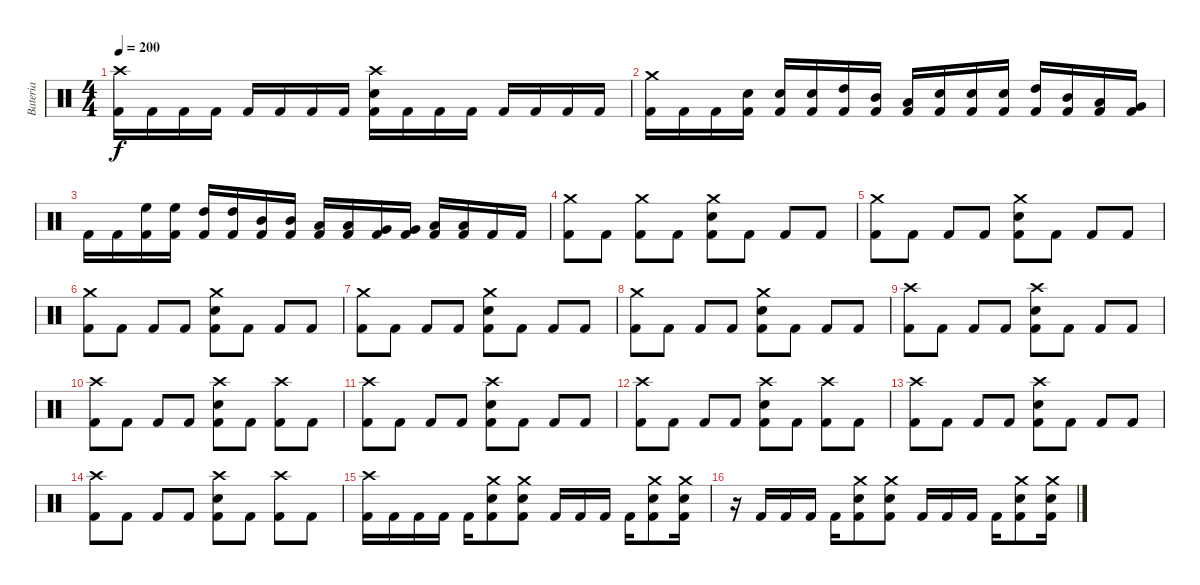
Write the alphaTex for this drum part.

\track ("Bateria" "Bateria") {instrument percussion}
\staff {score}
\articulation defaults
\ts (4 4)
\tempo 200
\clef neutral
\ks c
("Crash high (hit)" "Kick (hit) 2").16{dy f} "Kick (hit) 2".16 "Kick (hit) 2".16 "Kick (hit) 2".16 "Kick (hit) 2".16 "Kick (hit) 2".16 "Kick (hit) 2".16 "Kick (hit) 2".16 ("Crash high (hit)" "Electric Snare (hit)" "Kick (hit) 2").16 "Kick (hit) 2".16 "Kick (hit) 2".16 "Kick (hit) 2".16 "Kick (hit) 2".16 "Kick (hit) 2".16 "Kick (hit) 2".16 "Kick (hit) 2".16 |
("Crash medium (hit)" "Kick (hit) 2").16 "Kick (hit) 2".16 "Kick (hit) 2".16 ("Electric Snare (hit)" "Kick (hit) 2").16 ("Electric Snare (hit)" "Kick (hit) 2").16 ("Electric Snare (hit)" "Kick (hit) 2").16 ("High Tom (hit)" "Kick (hit) 2").16 ("Mid Tom (hit)" "Kick (hit) 2").16 ("Low Tom (hit)" "Kick (hit) 2").16 ("Electric Snare (hit)" "Kick (hit) 2").16 ("Electric Snare (hit)" "Kick (hit) 2").16 ("Electric Snare (hit)" "Kick (hit) 2").16 ("High Tom (hit)" "Kick (hit) 2").16 ("Mid Tom (hit)" "Kick (hit) 2").16 ("Low Tom (hit)" "Kick (hit) 2").16 ("Very Low Tom (hit)" "Kick (hit) 2").16 |
"Kick (hit) 2".16 "Kick (hit) 2".16 ("High Floor Tom (hit)" "Kick (hit) 2").16 ("High Floor Tom (hit)" "Kick (hit) 2").16 ("High Tom (hit)" "Kick (hit) 2").16 ("High Tom (hit)" "Kick (hit) 2").16 ("Mid Tom (hit)" "Kick (hit) 2").16 ("Mid Tom (hit)" "Kick (hit) 2").16 ("Low Tom (hit)" "Kick (hit) 2").16 ("Low Tom (hit)" "Kick (hit) 2").16 ("Very Low Tom (hit)" "Kick (hit) 2").16 ("Very Low Tom (hit)" "Kick (hit) 2").16 ("Low Floor Tom (hit)" "Kick (hit) 2").16 ("Low Floor Tom (hit)" "Kick (hit) 2").16 "Kick (hit) 2".16 "Kick (hit) 2".16 |
("Crash medium (hit)" "Kick (hit) 2").8 "Kick (hit) 2".8 ("Crash medium (hit)" "Kick (hit) 2").8 "Kick (hit) 2".8 ("Crash medium (hit)" "Electric Snare (hit)" "Kick (hit) 2").8 "Kick (hit) 2".8 "Kick (hit) 2".8 "Kick (hit) 2".8 |
("Crash medium (hit)" "Kick (hit) 2").8 "Kick (hit) 2".8 "Kick (hit) 2".8 "Kick (hit) 2".8 ("Crash medium (hit)" "Electric Snare (hit)" "Kick (hit) 2").8 "Kick (hit) 2".8 "Kick (hit) 2".8 "Kick (hit) 2".8 |
("Crash medium (hit)" "Kick (hit) 2").8 "Kick (hit) 2".8 "Kick (hit) 2".8 "Kick (hit) 2".8 ("Crash medium (hit)" "Electric Snare (hit)" "Kick (hit) 2").8 "Kick (hit) 2".8 "Kick (hit) 2".8 "Kick (hit) 2".8 |
("Crash medium (hit)" "Kick (hit) 2").8 "Kick (hit) 2".8 "Kick (hit) 2".8 "Kick (hit) 2".8 ("Crash medium (hit)" "Electric Snare (hit)" "Kick (hit) 2").8 "Kick (hit) 2".8 "Kick (hit) 2".8 "Kick (hit) 2".8 |
("Crash medium (hit)" "Kick (hit) 2").8 "Kick (hit) 2".8 "Kick (hit) 2".8 "Kick (hit) 2".8 ("Crash medium (hit)" "Electric Snare (hit)" "Kick (hit) 2").8 "Kick (hit) 2".8 "Kick (hit) 2".8 "Kick (hit) 2".8 |
("Crash high (hit)" "Kick (hit) 2").8 "Kick (hit) 2".8 "Kick (hit) 2".8 "Kick (hit) 2".8 ("Crash high (hit)" "Electric Snare (hit)" "Kick (hit) 2").8 "Kick (hit) 2".8 "Kick (hit) 2".8 "Kick (hit) 2".8 |
("Crash high (hit)" "Kick (hit) 2").8 "Kick (hit) 2".8 "Kick (hit) 2".8 "Kick (hit) 2".8 ("Crash high (hit)" "Electric Snare (hit)" "Kick (hit) 2").8 "Kick (hit) 2".8 ("Crash high (hit)" "Kick (hit) 2").8 "Kick (hit) 2".8 |
("Crash high (hit)" "Kick (hit) 2").8 "Kick (hit) 2".8 "Kick (hit) 2".8 "Kick (hit) 2".8 ("Crash high (hit)" "Electric Snare (hit)" "Kick (hit) 2").8 "Kick (hit) 2".8 "Kick (hit) 2".8 "Kick (hit) 2".8 |
("Crash high (hit)" "Kick (hit) 2").8 "Kick (hit) 2".8 "Kick (hit) 2".8 "Kick (hit) 2".8 ("Crash high (hit)" "Electric Snare (hit)" "Kick (hit) 2").8 "Kick (hit) 2".8 ("Crash high (hit)" "Kick (hit) 2").8 "Kick (hit) 2".8 |
("Crash high (hit)" "Kick (hit) 2").8 "Kick (hit) 2".8 "Kick (hit) 2".8 "Kick (hit) 2".8 ("Crash high (hit)" "Electric Snare (hit)" "Kick (hit) 2").8 "Kick (hit) 2".8 "Kick (hit) 2".8 "Kick (hit) 2".8 |
("Crash high (hit)" "Kick (hit) 2").8 "Kick (hit) 2".8 "Kick (hit) 2".8 "Kick (hit) 2".8 ("Crash high (hit)" "Electric Snare (hit)" "Kick (hit) 2").8 "Kick (hit) 2".8 ("Crash high (hit)" "Kick (hit) 2").8 "Kick (hit) 2".8 |
("Crash high (hit)" "Kick (hit) 2").16 "Kick (hit) 2".16 "Kick (hit) 2".16 "Kick (hit) 2".16 "Kick (hit) 2".16 ("Crash medium (hit)" "Electric Snare (hit)" "Kick (hit) 2").8 ("Crash medium (hit)" "Electric Snare (hit)" "Kick (hit) 2").8 "Kick (hit) 2".16 "Kick (hit) 2".16 "Kick (hit) 2".16 "Kick (hit) 2".16 ("Crash medium (hit)" "Electric Snare (hit)" "Kick (hit) 2").8 ("Crash medium (hit)" "Electric Snare (hit)" "Kick (hit) 2").16 |
r.16 "Kick (hit) 2".16 "Kick (hit) 2".16 "Kick (hit) 2".16 "Kick (hit) 2".16 ("Crash medium (hit)" "Electric Snare (hit)" "Kick (hit) 2").8 ("Crash medium (hit)" "Electric Snare (hit)" "Kick (hit) 2").8 "Kick (hit) 2".16 "Kick (hit) 2".16 "Kick (hit) 2".16 "Kick (hit) 2".16 ("Crash medium (hit)" "Electric Snare (hit)" "Kick (hit) 2").8 ("Crash medium (hit)" "Electric Snare (hit)" "Kick (hit) 2").16
